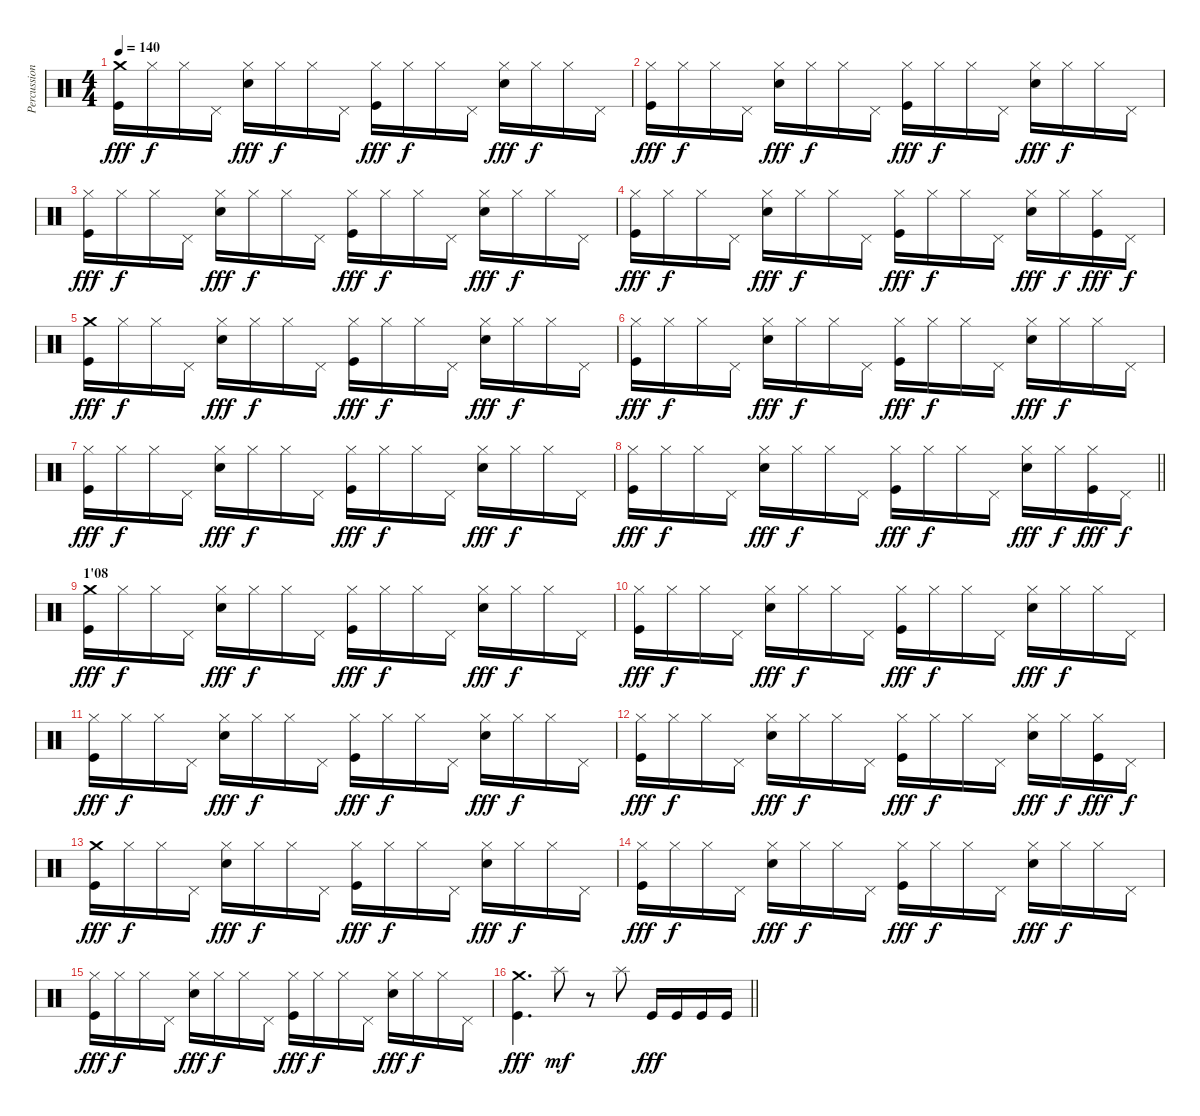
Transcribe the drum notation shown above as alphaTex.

\track ("Percussions" "Percussion") {instrument percussion}
\staff {score}
\articulation defaults
\ts (4 4)
\tempo 140
\clef neutral
\ks c
("Crash medium (hit)" "Kick (hit)").16{dy fff} "Hi-Hat (closed)".16{dy f} "Hi-Hat (closed)".16 "Pedal Hi-Hat (hit)".16 ("Hi-Hat (closed)" "Electric Snare (hit)").16{dy fff} "Hi-Hat (closed)".16{dy f} "Hi-Hat (closed)".16 "Pedal Hi-Hat (hit)".16 ("Hi-Hat (closed)" "Kick (hit)").16{dy fff} "Hi-Hat (closed)".16{dy f} "Hi-Hat (closed)".16 "Pedal Hi-Hat (hit)".16 ("Hi-Hat (closed)" "Electric Snare (hit)").16{dy fff} "Hi-Hat (closed)".16{dy f} "Hi-Hat (closed)".16 "Pedal Hi-Hat (hit)".16 |
("Hi-Hat (closed)" "Kick (hit)").16{dy fff} "Hi-Hat (closed)".16{dy f} "Hi-Hat (closed)".16 "Pedal Hi-Hat (hit)".16 ("Hi-Hat (closed)" "Electric Snare (hit)").16{dy fff} "Hi-Hat (closed)".16{dy f} "Hi-Hat (closed)".16 "Pedal Hi-Hat (hit)".16 ("Hi-Hat (closed)" "Kick (hit)").16{dy fff} "Hi-Hat (closed)".16{dy f} "Hi-Hat (closed)".16 "Pedal Hi-Hat (hit)".16 ("Hi-Hat (closed)" "Electric Snare (hit)").16{dy fff} "Hi-Hat (closed)".16{dy f} "Hi-Hat (closed)".16 "Pedal Hi-Hat (hit)".16 |
("Hi-Hat (closed)" "Kick (hit)").16{dy fff} "Hi-Hat (closed)".16{dy f} "Hi-Hat (closed)".16 "Pedal Hi-Hat (hit)".16 ("Hi-Hat (closed)" "Electric Snare (hit)").16{dy fff} "Hi-Hat (closed)".16{dy f} "Hi-Hat (closed)".16 "Pedal Hi-Hat (hit)".16 ("Hi-Hat (closed)" "Kick (hit)").16{dy fff} "Hi-Hat (closed)".16{dy f} "Hi-Hat (closed)".16 "Pedal Hi-Hat (hit)".16 ("Hi-Hat (closed)" "Electric Snare (hit)").16{dy fff} "Hi-Hat (closed)".16{dy f} "Hi-Hat (closed)".16 "Pedal Hi-Hat (hit)".16 |
("Hi-Hat (closed)" "Kick (hit)").16{dy fff} "Hi-Hat (closed)".16{dy f} "Hi-Hat (closed)".16 "Pedal Hi-Hat (hit)".16 ("Hi-Hat (closed)" "Electric Snare (hit)").16{dy fff} "Hi-Hat (closed)".16{dy f} "Hi-Hat (closed)".16 "Pedal Hi-Hat (hit)".16 ("Hi-Hat (closed)" "Kick (hit)").16{dy fff} "Hi-Hat (closed)".16{dy f} "Hi-Hat (closed)".16 "Pedal Hi-Hat (hit)".16 ("Hi-Hat (closed)" "Electric Snare (hit)").16{dy fff} "Hi-Hat (closed)".16{dy f} ("Hi-Hat (closed)" "Kick (hit)").16{dy fff} "Pedal Hi-Hat (hit)".16{dy f} |
("Crash medium (hit)" "Kick (hit)").16{dy fff} "Hi-Hat (closed)".16{dy f} "Hi-Hat (closed)".16 "Pedal Hi-Hat (hit)".16 ("Hi-Hat (closed)" "Electric Snare (hit)").16{dy fff} "Hi-Hat (closed)".16{dy f} "Hi-Hat (closed)".16 "Pedal Hi-Hat (hit)".16 ("Hi-Hat (closed)" "Kick (hit)").16{dy fff} "Hi-Hat (closed)".16{dy f} "Hi-Hat (closed)".16 "Pedal Hi-Hat (hit)".16 ("Hi-Hat (closed)" "Electric Snare (hit)").16{dy fff} "Hi-Hat (closed)".16{dy f} "Hi-Hat (closed)".16 "Pedal Hi-Hat (hit)".16 |
("Hi-Hat (closed)" "Kick (hit)").16{dy fff} "Hi-Hat (closed)".16{dy f} "Hi-Hat (closed)".16 "Pedal Hi-Hat (hit)".16 ("Hi-Hat (closed)" "Electric Snare (hit)").16{dy fff} "Hi-Hat (closed)".16{dy f} "Hi-Hat (closed)".16 "Pedal Hi-Hat (hit)".16 ("Hi-Hat (closed)" "Kick (hit)").16{dy fff} "Hi-Hat (closed)".16{dy f} "Hi-Hat (closed)".16 "Pedal Hi-Hat (hit)".16 ("Hi-Hat (closed)" "Electric Snare (hit)").16{dy fff} "Hi-Hat (closed)".16{dy f} "Hi-Hat (closed)".16 "Pedal Hi-Hat (hit)".16 |
("Hi-Hat (closed)" "Kick (hit)").16{dy fff} "Hi-Hat (closed)".16{dy f} "Hi-Hat (closed)".16 "Pedal Hi-Hat (hit)".16 ("Hi-Hat (closed)" "Electric Snare (hit)").16{dy fff} "Hi-Hat (closed)".16{dy f} "Hi-Hat (closed)".16 "Pedal Hi-Hat (hit)".16 ("Hi-Hat (closed)" "Kick (hit)").16{dy fff} "Hi-Hat (closed)".16{dy f} "Hi-Hat (closed)".16 "Pedal Hi-Hat (hit)".16 ("Hi-Hat (closed)" "Electric Snare (hit)").16{dy fff} "Hi-Hat (closed)".16{dy f} "Hi-Hat (closed)".16 "Pedal Hi-Hat (hit)".16 |
\barLineRight lightlight
("Hi-Hat (closed)" "Kick (hit)").16{dy fff} "Hi-Hat (closed)".16{dy f} "Hi-Hat (closed)".16 "Pedal Hi-Hat (hit)".16 ("Hi-Hat (closed)" "Electric Snare (hit)").16{dy fff} "Hi-Hat (closed)".16{dy f} "Hi-Hat (closed)".16 "Pedal Hi-Hat (hit)".16 ("Hi-Hat (closed)" "Kick (hit)").16{dy fff} "Hi-Hat (closed)".16{dy f} "Hi-Hat (closed)".16 "Pedal Hi-Hat (hit)".16 ("Hi-Hat (closed)" "Electric Snare (hit)").16{dy fff} "Hi-Hat (closed)".16{dy f} ("Hi-Hat (closed)" "Kick (hit)").16{dy fff} "Pedal Hi-Hat (hit)".16{dy f} |
\section ("" "1'08")
("Crash medium (hit)" "Kick (hit)").16{dy fff} "Hi-Hat (closed)".16{dy f} "Hi-Hat (closed)".16 "Pedal Hi-Hat (hit)".16 ("Hi-Hat (closed)" "Electric Snare (hit)").16{dy fff} "Hi-Hat (closed)".16{dy f} "Hi-Hat (closed)".16 "Pedal Hi-Hat (hit)".16 ("Hi-Hat (closed)" "Kick (hit)").16{dy fff} "Hi-Hat (closed)".16{dy f} "Hi-Hat (closed)".16 "Pedal Hi-Hat (hit)".16 ("Hi-Hat (closed)" "Electric Snare (hit)").16{dy fff} "Hi-Hat (closed)".16{dy f} "Hi-Hat (closed)".16 "Pedal Hi-Hat (hit)".16 |
("Hi-Hat (closed)" "Kick (hit)").16{dy fff} "Hi-Hat (closed)".16{dy f} "Hi-Hat (closed)".16 "Pedal Hi-Hat (hit)".16 ("Hi-Hat (closed)" "Electric Snare (hit)").16{dy fff} "Hi-Hat (closed)".16{dy f} "Hi-Hat (closed)".16 "Pedal Hi-Hat (hit)".16 ("Hi-Hat (closed)" "Kick (hit)").16{dy fff} "Hi-Hat (closed)".16{dy f} "Hi-Hat (closed)".16 "Pedal Hi-Hat (hit)".16 ("Hi-Hat (closed)" "Electric Snare (hit)").16{dy fff} "Hi-Hat (closed)".16{dy f} "Hi-Hat (closed)".16 "Pedal Hi-Hat (hit)".16 |
("Hi-Hat (closed)" "Kick (hit)").16{dy fff} "Hi-Hat (closed)".16{dy f} "Hi-Hat (closed)".16 "Pedal Hi-Hat (hit)".16 ("Hi-Hat (closed)" "Electric Snare (hit)").16{dy fff} "Hi-Hat (closed)".16{dy f} "Hi-Hat (closed)".16 "Pedal Hi-Hat (hit)".16 ("Hi-Hat (closed)" "Kick (hit)").16{dy fff} "Hi-Hat (closed)".16{dy f} "Hi-Hat (closed)".16 "Pedal Hi-Hat (hit)".16 ("Hi-Hat (closed)" "Electric Snare (hit)").16{dy fff} "Hi-Hat (closed)".16{dy f} "Hi-Hat (closed)".16 "Pedal Hi-Hat (hit)".16 |
("Hi-Hat (closed)" "Kick (hit)").16{dy fff} "Hi-Hat (closed)".16{dy f} "Hi-Hat (closed)".16 "Pedal Hi-Hat (hit)".16 ("Hi-Hat (closed)" "Electric Snare (hit)").16{dy fff} "Hi-Hat (closed)".16{dy f} "Hi-Hat (closed)".16 "Pedal Hi-Hat (hit)".16 ("Hi-Hat (closed)" "Kick (hit)").16{dy fff} "Hi-Hat (closed)".16{dy f} "Hi-Hat (closed)".16 "Pedal Hi-Hat (hit)".16 ("Hi-Hat (closed)" "Electric Snare (hit)").16{dy fff} "Hi-Hat (closed)".16{dy f} ("Hi-Hat (closed)" "Kick (hit)").16{dy fff} "Pedal Hi-Hat (hit)".16{dy f} |
("Crash medium (hit)" "Kick (hit)").16{dy fff} "Hi-Hat (closed)".16{dy f} "Hi-Hat (closed)".16 "Pedal Hi-Hat (hit)".16 ("Hi-Hat (closed)" "Electric Snare (hit)").16{dy fff} "Hi-Hat (closed)".16{dy f} "Hi-Hat (closed)".16 "Pedal Hi-Hat (hit)".16 ("Hi-Hat (closed)" "Kick (hit)").16{dy fff} "Hi-Hat (closed)".16{dy f} "Hi-Hat (closed)".16 "Pedal Hi-Hat (hit)".16 ("Hi-Hat (closed)" "Electric Snare (hit)").16{dy fff} "Hi-Hat (closed)".16{dy f} "Hi-Hat (closed)".16 "Pedal Hi-Hat (hit)".16 |
("Hi-Hat (closed)" "Kick (hit)").16{dy fff} "Hi-Hat (closed)".16{dy f} "Hi-Hat (closed)".16 "Pedal Hi-Hat (hit)".16 ("Hi-Hat (closed)" "Electric Snare (hit)").16{dy fff} "Hi-Hat (closed)".16{dy f} "Hi-Hat (closed)".16 "Pedal Hi-Hat (hit)".16 ("Hi-Hat (closed)" "Kick (hit)").16{dy fff} "Hi-Hat (closed)".16{dy f} "Hi-Hat (closed)".16 "Pedal Hi-Hat (hit)".16 ("Hi-Hat (closed)" "Electric Snare (hit)").16{dy fff} "Hi-Hat (closed)".16{dy f} "Hi-Hat (closed)".16 "Pedal Hi-Hat (hit)".16 |
("Hi-Hat (closed)" "Kick (hit)").16{dy fff} "Hi-Hat (closed)".16{dy f} "Hi-Hat (closed)".16 "Pedal Hi-Hat (hit)".16 ("Hi-Hat (closed)" "Electric Snare (hit)").16{dy fff} "Hi-Hat (closed)".16{dy f} "Hi-Hat (closed)".16 "Pedal Hi-Hat (hit)".16 ("Hi-Hat (closed)" "Kick (hit)").16{dy fff} "Hi-Hat (closed)".16{dy f} "Hi-Hat (closed)".16 "Pedal Hi-Hat (hit)".16 ("Hi-Hat (closed)" "Electric Snare (hit)").16{dy fff} "Hi-Hat (closed)".16{dy f} "Hi-Hat (closed)".16 "Pedal Hi-Hat (hit)".16 |
\barLineRight lightlight
("Crash medium (hit)" "Kick (hit)").4{d dy fff} "Splash (hit)".8{dy mf} r.8 "Splash (hit)".8 "Kick (hit)".16{dy fff} "Kick (hit)".16 "Kick (hit)".16 "Kick (hit)".16
